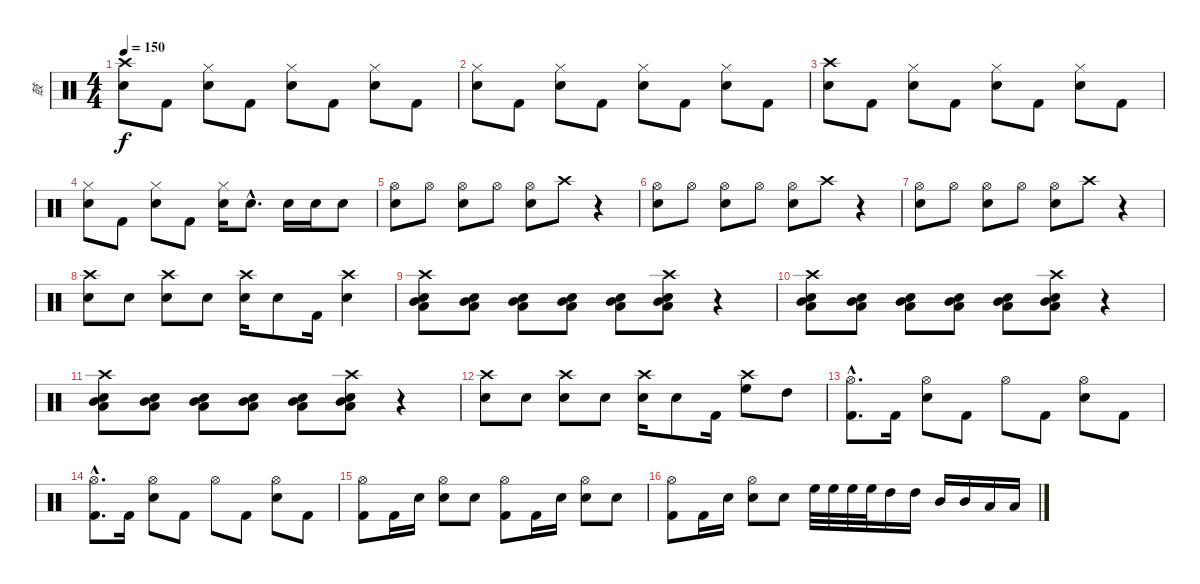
\track ("鼓" "鼓") {instrument percussion}
\staff {score}
\articulation defaults
\ts (4 4)
\tempo 150
\clef neutral
\ks c
("Crash high (hit)" "Electric Snare (hit)").8{dy f} "Kick (hit) 2".8 ("Hi-Hat (closed)" "Electric Snare (hit)").8 "Kick (hit) 2".8 ("Hi-Hat (closed)" "Electric Snare (hit)").8 "Kick (hit) 2".8 ("Hi-Hat (closed)" "Electric Snare (hit)").8 "Kick (hit) 2".8 |
("Hi-Hat (closed)" "Electric Snare (hit)").8 "Kick (hit) 2".8 ("Hi-Hat (closed)" "Electric Snare (hit)").8 "Kick (hit) 2".8 ("Hi-Hat (closed)" "Electric Snare (hit)").8 "Kick (hit) 2".8 ("Hi-Hat (closed)" "Electric Snare (hit)").8 "Kick (hit) 2".8 |
("Crash high (hit)" "Electric Snare (hit)").8 "Kick (hit) 2".8 ("Hi-Hat (closed)" "Electric Snare (hit)").8 "Kick (hit) 2".8 ("Hi-Hat (closed)" "Electric Snare (hit)").8 "Kick (hit) 2".8 ("Hi-Hat (closed)" "Electric Snare (hit)").8 "Kick (hit) 2".8 |
("Hi-Hat (closed)" "Electric Snare (hit)").8 "Kick (hit) 2".8 ("Hi-Hat (closed)" "Electric Snare (hit)").8 "Kick (hit) 2".8 ("Hi-Hat (closed)" "Electric Snare (hit)").16 "Electric Snare (hit)"{hac}.8{d} "Electric Snare (hit)".16 "Electric Snare (hit)".16 "Electric Snare (hit)".8 |
("Hi-Hat (open)" "Electric Snare (hit)").8 "Hi-Hat (open)".8 ("Hi-Hat (open)" "Electric Snare (hit)").8 "Hi-Hat (open)".8 ("Hi-Hat (open)" "Electric Snare (hit)").8 "Crash high (hit)".8 r.4 |
("Hi-Hat (open)" "Electric Snare (hit)").8 "Hi-Hat (open)".8 ("Hi-Hat (open)" "Electric Snare (hit)").8 "Hi-Hat (open)".8 ("Hi-Hat (open)" "Electric Snare (hit)").8 "Crash high (hit)".8 r.4 |
("Hi-Hat (open)" "Electric Snare (hit)").8 "Hi-Hat (open)".8 ("Hi-Hat (open)" "Electric Snare (hit)").8 "Hi-Hat (open)".8 ("Hi-Hat (open)" "Electric Snare (hit)").8 "Crash high (hit)".8 r.4 |
("Crash high (hit)" "Electric Snare (hit)").8 "Electric Snare (hit)".8 ("Crash high (hit)" "Electric Snare (hit)").8 "Electric Snare (hit)".8 ("Crash high (hit)" "Electric Snare (hit)").16 "Electric Snare (hit)".8 "Kick (hit) 2".16 ("Crash high (hit)" "Electric Snare (hit)").4 |
("Snare (hit) 2" "Mid Tom (hit)" "Crash high (hit)" "Low Tom (hit)").8{volume 8} ("Snare (hit) 2" "Mid Tom (hit)" "Low Tom (hit)").8 ("Snare (hit) 2" "Mid Tom (hit)" "Low Tom (hit)").8{volume 12} ("Snare (hit) 2" "Mid Tom (hit)" "Low Tom (hit)").8 ("Snare (hit) 2" "Mid Tom (hit)" "Low Tom (hit)").8{volume 16} ("Snare (hit) 2" "Mid Tom (hit)" "Crash high (hit)" "Low Tom (hit)").8 r.4 |
("Snare (hit) 2" "Mid Tom (hit)" "Crash high (hit)" "Low Tom (hit)").8{volume 8} ("Snare (hit) 2" "Mid Tom (hit)" "Low Tom (hit)").8 ("Snare (hit) 2" "Mid Tom (hit)" "Low Tom (hit)").8{volume 12} ("Snare (hit) 2" "Mid Tom (hit)" "Low Tom (hit)").8 ("Snare (hit) 2" "Mid Tom (hit)" "Low Tom (hit)").8{volume 16} ("Snare (hit) 2" "Mid Tom (hit)" "Crash high (hit)" "Low Tom (hit)").8 r.4 |
("Snare (hit) 2" "Mid Tom (hit)" "Crash high (hit)" "Low Tom (hit)").8{volume 8} ("Snare (hit) 2" "Mid Tom (hit)" "Low Tom (hit)").8 ("Snare (hit) 2" "Mid Tom (hit)" "Low Tom (hit)").8{volume 12} ("Snare (hit) 2" "Mid Tom (hit)" "Low Tom (hit)").8 ("Snare (hit) 2" "Mid Tom (hit)" "Low Tom (hit)").8{volume 16} ("Snare (hit) 2" "Mid Tom (hit)" "Crash high (hit)" "Low Tom (hit)").8 r.4 |
("Crash high (hit)" "Electric Snare (hit)").8 "Electric Snare (hit)".8 ("Crash high (hit)" "Electric Snare (hit)").8 "Electric Snare (hit)".8 ("Crash high (hit)" "Electric Snare (hit)").16 "Electric Snare (hit)".8 "Kick (hit) 2".16 ("Crash high (hit)" "High Floor Tom (hit)").8 "High Tom (hit)".8 |
("Hi-Hat (open)"{hac} "Kick (hit) 2"{hac}).8{d} "Kick (hit) 2".16 ("Hi-Hat (open)" "Electric Snare (hit)").8 "Kick (hit) 2".8 "Hi-Hat (open)".8 "Kick (hit) 2".8 ("Hi-Hat (open)" "Electric Snare (hit)").8 "Kick (hit) 2".8 |
("Hi-Hat (open)"{hac} "Kick (hit) 2"{hac}).8{d} "Kick (hit) 2".16 ("Hi-Hat (open)" "Electric Snare (hit)").8 "Kick (hit) 2".8 "Hi-Hat (open)".8 "Kick (hit) 2".8 ("Hi-Hat (open)" "Electric Snare (hit)").8 "Kick (hit) 2".8 |
("Hi-Hat (open)" "Kick (hit) 2").8 "Kick (hit) 2".16 "Electric Snare (hit)".16 ("Hi-Hat (open)" "Electric Snare (hit)").8 "Electric Snare (hit)".8 ("Hi-Hat (open)" "Kick (hit) 2").8 "Kick (hit) 2".16 "Electric Snare (hit)".16 ("Hi-Hat (open)" "Electric Snare (hit)").8 "Electric Snare (hit)".8 |
("Hi-Hat (open)" "Kick (hit) 2").8 "Kick (hit) 2".16 "Electric Snare (hit)".16 ("Hi-Hat (open)" "Electric Snare (hit)").8 "Electric Snare (hit)".8 "High Floor Tom (hit)".32 "High Floor Tom (hit)".32 "High Floor Tom (hit)".32 "High Floor Tom (hit)".32 "High Tom (hit)".16 "High Tom (hit)".16 "Mid Tom (hit)".16 "Mid Tom (hit)".16 "Low Tom (hit)".16 "Low Tom (hit)".16
